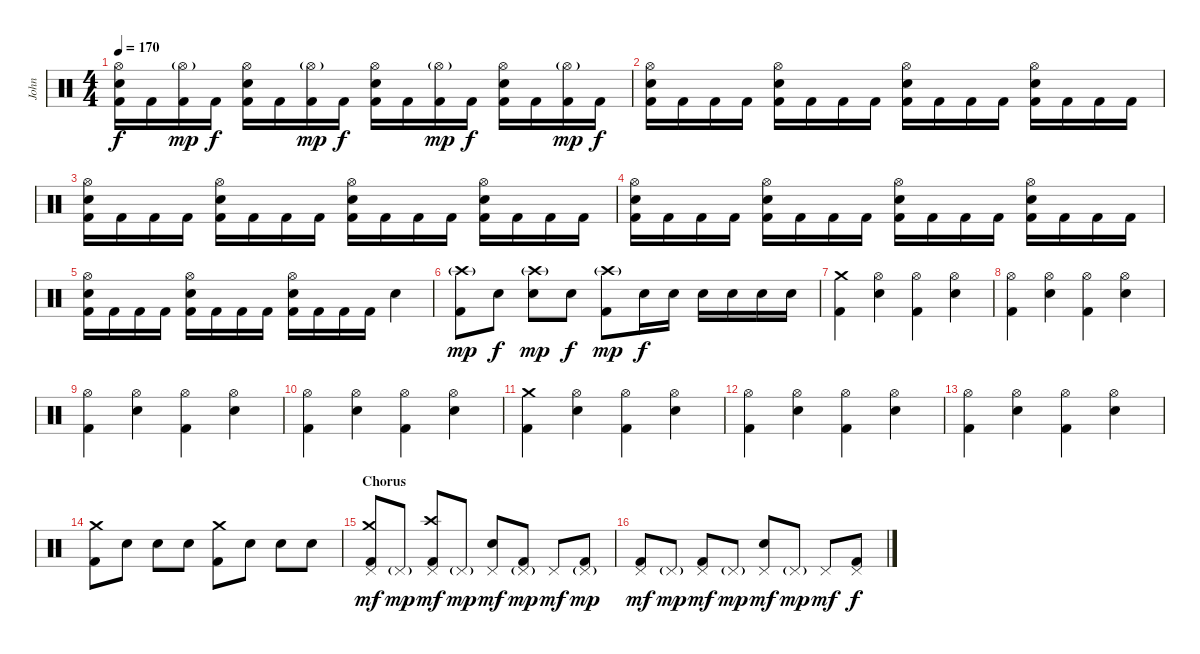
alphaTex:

\track ("John" "John") {instrument percussion}
\staff {score}
\articulation defaults
\ts (4 4)
\tempo 170
\clef neutral
\ks c
("Hi-Hat (open)" "Electric Snare (hit)" "Kick (hit) 2").16{dy f} "Kick (hit) 2".16 ("Hi-Hat (open)"{g} "Kick (hit) 2").16{dy mp} "Kick (hit) 2".16{dy f} ("Hi-Hat (open)" "Electric Snare (hit)" "Kick (hit) 2").16 "Kick (hit) 2".16 ("Hi-Hat (open)"{g} "Kick (hit) 2").16{dy mp} "Kick (hit) 2".16{dy f} ("Hi-Hat (open)" "Electric Snare (hit)" "Kick (hit) 2").16 "Kick (hit) 2".16 ("Hi-Hat (open)"{g} "Kick (hit) 2").16{dy mp} "Kick (hit) 2".16{dy f} ("Hi-Hat (open)" "Electric Snare (hit)" "Kick (hit) 2").16 "Kick (hit) 2".16 ("Hi-Hat (open)"{g} "Kick (hit) 2").16{dy mp} "Kick (hit) 2".16{dy f} |
("Hi-Hat (open)" "Electric Snare (hit)" "Kick (hit) 2").16 "Kick (hit) 2".16 "Kick (hit) 2".16 "Kick (hit) 2".16 ("Hi-Hat (open)" "Electric Snare (hit)" "Kick (hit) 2").16 "Kick (hit) 2".16 "Kick (hit) 2".16 "Kick (hit) 2".16 ("Hi-Hat (open)" "Electric Snare (hit)" "Kick (hit) 2").16 "Kick (hit) 2".16 "Kick (hit) 2".16 "Kick (hit) 2".16 ("Hi-Hat (open)" "Electric Snare (hit)" "Kick (hit) 2").16 "Kick (hit) 2".16 "Kick (hit) 2".16 "Kick (hit) 2".16 |
("Hi-Hat (open)" "Electric Snare (hit)" "Kick (hit) 2").16 "Kick (hit) 2".16 "Kick (hit) 2".16 "Kick (hit) 2".16 ("Hi-Hat (open)" "Electric Snare (hit)" "Kick (hit) 2").16 "Kick (hit) 2".16 "Kick (hit) 2".16 "Kick (hit) 2".16 ("Hi-Hat (open)" "Electric Snare (hit)" "Kick (hit) 2").16 "Kick (hit) 2".16 "Kick (hit) 2".16 "Kick (hit) 2".16 ("Hi-Hat (open)" "Electric Snare (hit)" "Kick (hit) 2").16 "Kick (hit) 2".16 "Kick (hit) 2".16 "Kick (hit) 2".16 |
("Hi-Hat (open)" "Electric Snare (hit)" "Kick (hit) 2").16 "Kick (hit) 2".16 "Kick (hit) 2".16 "Kick (hit) 2".16 ("Hi-Hat (open)" "Electric Snare (hit)" "Kick (hit) 2").16 "Kick (hit) 2".16 "Kick (hit) 2".16 "Kick (hit) 2".16 ("Hi-Hat (open)" "Electric Snare (hit)" "Kick (hit) 2").16 "Kick (hit) 2".16 "Kick (hit) 2".16 "Kick (hit) 2".16 ("Hi-Hat (open)" "Electric Snare (hit)" "Kick (hit) 2").16 "Kick (hit) 2".16 "Kick (hit) 2".16 "Kick (hit) 2".16 |
("Hi-Hat (open)" "Electric Snare (hit)" "Kick (hit) 2").16 "Kick (hit) 2".16 "Kick (hit) 2".16 "Kick (hit) 2".16 ("Hi-Hat (open)" "Electric Snare (hit)" "Kick (hit) 2").16 "Kick (hit) 2".16 "Kick (hit) 2".16 "Kick (hit) 2".16 ("Hi-Hat (open)" "Electric Snare (hit)" "Kick (hit) 2").16 "Kick (hit) 2".16 "Kick (hit) 2".16 "Kick (hit) 2".16 "Electric Snare (hit)".4 |
("Crash high (hit)"{g} "Kick (hit) 2").8{dy mp} "Electric Snare (hit)".8{dy f} ("Crash high (hit)"{g} "Electric Snare (hit)").8{dy mp} "Electric Snare (hit)".8{dy f} ("Crash high (hit)"{g} "Kick (hit) 2").8{dy mp} "Electric Snare (hit)".16{dy f} "Electric Snare (hit)".16 "Electric Snare (hit)".16 "Electric Snare (hit)".16 "Electric Snare (hit)".16 "Electric Snare (hit)".16 |
("Crash medium (hit)" "Kick (hit) 2").4 ("Hi-Hat (open)" "Electric Snare (hit)").4 ("Hi-Hat (open)" "Kick (hit) 2").4 ("Hi-Hat (open)" "Electric Snare (hit)").4 |
("Hi-Hat (open)" "Kick (hit) 2").4 ("Hi-Hat (open)" "Electric Snare (hit)").4 ("Hi-Hat (open)" "Kick (hit) 2").4 ("Hi-Hat (open)" "Electric Snare (hit)").4 |
("Hi-Hat (open)" "Kick (hit) 2").4 ("Hi-Hat (open)" "Electric Snare (hit)").4 ("Hi-Hat (open)" "Kick (hit) 2").4 ("Hi-Hat (open)" "Electric Snare (hit)").4 |
("Hi-Hat (open)" "Kick (hit) 2").4 ("Hi-Hat (open)" "Electric Snare (hit)").4 ("Hi-Hat (open)" "Kick (hit) 2").4 ("Hi-Hat (open)" "Electric Snare (hit)").4 |
("Crash medium (hit)" "Kick (hit) 2").4 ("Hi-Hat (open)" "Electric Snare (hit)").4 ("Hi-Hat (open)" "Kick (hit) 2").4 ("Hi-Hat (open)" "Electric Snare (hit)").4 |
("Hi-Hat (open)" "Kick (hit) 2").4 ("Hi-Hat (open)" "Electric Snare (hit)").4 ("Hi-Hat (open)" "Kick (hit) 2").4 ("Hi-Hat (open)" "Electric Snare (hit)").4 |
("Hi-Hat (open)" "Kick (hit) 2").4 ("Hi-Hat (open)" "Electric Snare (hit)").4 ("Hi-Hat (open)" "Kick (hit) 2").4 ("Hi-Hat (open)" "Electric Snare (hit)").4 |
("Crash medium (hit)" "Kick (hit) 2").8 "Electric Snare (hit)".8 "Electric Snare (hit)".8 "Electric Snare (hit)".8 ("Crash medium (hit)" "Kick (hit) 2").8 "Electric Snare (hit)".8 "Electric Snare (hit)".8 "Electric Snare (hit)".8 |
\section ("" "Chorus")
("Crash medium (hit)" "Pedal Hi-Hat (hit)" "Kick (hit) 2").8{dy mf} "Pedal Hi-Hat (hit)"{g}.8{dy mp} ("Crash high (hit)" "Pedal Hi-Hat (hit)" "Kick (hit) 2").8{dy mf} "Pedal Hi-Hat (hit)"{g}.8{dy mp} ("Pedal Hi-Hat (hit)" "Electric Snare (hit)").8{dy mf} ("Pedal Hi-Hat (hit)"{g} "Kick (hit) 2").8{dy mp} "Pedal Hi-Hat (hit)".8{dy mf} ("Pedal Hi-Hat (hit)"{g} "Kick (hit) 2").8{dy mp} |
("Pedal Hi-Hat (hit)" "Kick (hit) 2").8{dy mf} "Pedal Hi-Hat (hit)"{g}.8{dy mp} ("Pedal Hi-Hat (hit)" "Kick (hit) 2").8{dy mf} "Pedal Hi-Hat (hit)"{g}.8{dy mp} ("Pedal Hi-Hat (hit)" "Electric Snare (hit)").8{dy mf} "Pedal Hi-Hat (hit)"{g}.8{dy mp} "Pedal Hi-Hat (hit)".8{dy mf} ("Pedal Hi-Hat (hit)" "Kick (hit) 2").8{dy f}
